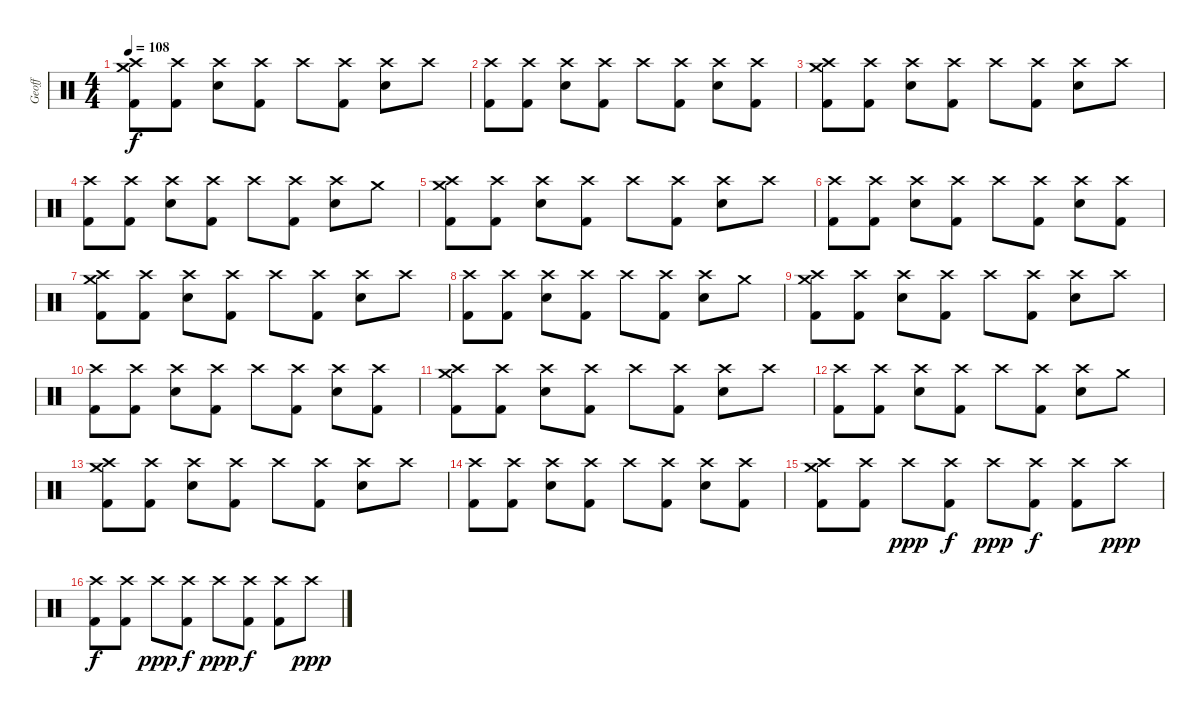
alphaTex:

\track ("Geoff" "Geoff") {instrument percussion}
\staff {score}
\articulation defaults
\ts (4 4)
\tempo 108
\clef neutral
\ks c
("Crash high (hit)" "Crash medium (hit)" "Kick (hit) 2").8{dy f} ("Crash high (hit)" "Kick (hit) 2").8 ("Crash high (hit)" "Electric Snare (hit)").8 ("Crash high (hit)" "Kick (hit) 2").8 "Crash high (hit)".8 ("Crash high (hit)" "Kick (hit) 2").8 ("Crash high (hit)" "Electric Snare (hit)").8 "Crash high (hit)".8 |
("Crash high (hit)" "Kick (hit) 2").8 ("Crash high (hit)" "Kick (hit) 2").8 ("Crash high (hit)" "Electric Snare (hit)").8 ("Crash high (hit)" "Kick (hit) 2").8 "Crash high (hit)".8 ("Crash high (hit)" "Kick (hit) 2").8 ("Crash high (hit)" "Electric Snare (hit)").8 ("Crash high (hit)" "Kick (hit) 2").8 |
("Crash high (hit)" "Crash medium (hit)" "Kick (hit) 2").8 ("Crash high (hit)" "Kick (hit) 2").8 ("Crash high (hit)" "Electric Snare (hit)").8 ("Crash high (hit)" "Kick (hit) 2").8 "Crash high (hit)".8 ("Crash high (hit)" "Kick (hit) 2").8 ("Crash high (hit)" "Electric Snare (hit)").8 "Crash high (hit)".8 |
("Crash high (hit)" "Kick (hit) 2").8 ("Crash high (hit)" "Kick (hit) 2").8 ("Crash high (hit)" "Electric Snare (hit)").8 ("Crash high (hit)" "Kick (hit) 2").8 "Crash high (hit)".8 ("Crash high (hit)" "Kick (hit) 2").8 ("Crash high (hit)" "Electric Snare (hit)").8 "Crash medium (hit)".8 |
("Crash high (hit)" "Crash medium (hit)" "Kick (hit) 2").8 ("Crash high (hit)" "Kick (hit) 2").8 ("Crash high (hit)" "Electric Snare (hit)").8 ("Crash high (hit)" "Kick (hit) 2").8 "Crash high (hit)".8 ("Crash high (hit)" "Kick (hit) 2").8 ("Crash high (hit)" "Electric Snare (hit)").8 "Crash high (hit)".8 |
("Crash high (hit)" "Kick (hit) 2").8 ("Crash high (hit)" "Kick (hit) 2").8 ("Crash high (hit)" "Electric Snare (hit)").8 ("Crash high (hit)" "Kick (hit) 2").8 "Crash high (hit)".8 ("Crash high (hit)" "Kick (hit) 2").8 ("Crash high (hit)" "Electric Snare (hit)").8 ("Crash high (hit)" "Kick (hit) 2").8 |
("Crash high (hit)" "Crash medium (hit)" "Kick (hit) 2").8 ("Crash high (hit)" "Kick (hit) 2").8 ("Crash high (hit)" "Electric Snare (hit)").8 ("Crash high (hit)" "Kick (hit) 2").8 "Crash high (hit)".8 ("Crash high (hit)" "Kick (hit) 2").8 ("Crash high (hit)" "Electric Snare (hit)").8 "Crash high (hit)".8 |
("Crash high (hit)" "Kick (hit) 2").8 ("Crash high (hit)" "Kick (hit) 2").8 ("Crash high (hit)" "Electric Snare (hit)").8 ("Crash high (hit)" "Kick (hit) 2").8 "Crash high (hit)".8 ("Crash high (hit)" "Kick (hit) 2").8 ("Crash high (hit)" "Electric Snare (hit)").8 "Crash medium (hit)".8 |
("Crash high (hit)" "Crash medium (hit)" "Kick (hit) 2").8 ("Crash high (hit)" "Kick (hit) 2").8 ("Crash high (hit)" "Electric Snare (hit)").8 ("Crash high (hit)" "Kick (hit) 2").8 "Crash high (hit)".8 ("Crash high (hit)" "Kick (hit) 2").8 ("Crash high (hit)" "Electric Snare (hit)").8 "Crash high (hit)".8 |
("Crash high (hit)" "Kick (hit) 2").8 ("Crash high (hit)" "Kick (hit) 2").8 ("Crash high (hit)" "Electric Snare (hit)").8 ("Crash high (hit)" "Kick (hit) 2").8 "Crash high (hit)".8 ("Crash high (hit)" "Kick (hit) 2").8 ("Crash high (hit)" "Electric Snare (hit)").8 ("Crash high (hit)" "Kick (hit) 2").8 |
("Crash high (hit)" "Crash medium (hit)" "Kick (hit) 2").8 ("Crash high (hit)" "Kick (hit) 2").8 ("Crash high (hit)" "Electric Snare (hit)").8 ("Crash high (hit)" "Kick (hit) 2").8 "Crash high (hit)".8 ("Crash high (hit)" "Kick (hit) 2").8 ("Crash high (hit)" "Electric Snare (hit)").8 "Crash high (hit)".8 |
("Crash high (hit)" "Kick (hit) 2").8 ("Crash high (hit)" "Kick (hit) 2").8 ("Crash high (hit)" "Electric Snare (hit)").8 ("Crash high (hit)" "Kick (hit) 2").8 "Crash high (hit)".8 ("Crash high (hit)" "Kick (hit) 2").8 ("Crash high (hit)" "Electric Snare (hit)").8 "Crash medium (hit)".8 |
("Crash high (hit)" "Crash medium (hit)" "Kick (hit) 2").8 ("Crash high (hit)" "Kick (hit) 2").8 ("Crash high (hit)" "Electric Snare (hit)").8 ("Crash high (hit)" "Kick (hit) 2").8 "Crash high (hit)".8 ("Crash high (hit)" "Kick (hit) 2").8 ("Crash high (hit)" "Electric Snare (hit)").8 "Crash high (hit)".8 |
("Crash high (hit)" "Kick (hit) 2").8 ("Crash high (hit)" "Kick (hit) 2").8 ("Crash high (hit)" "Electric Snare (hit)").8 ("Crash high (hit)" "Kick (hit) 2").8 "Crash high (hit)".8 ("Crash high (hit)" "Kick (hit) 2").8 ("Crash high (hit)" "Electric Snare (hit)").8 ("Crash high (hit)" "Kick (hit) 2").8 |
("Crash high (hit)" "Crash medium (hit)" "Kick (hit) 2").8 ("Crash high (hit)" "Kick (hit) 2").8 "Crash high (hit)".8{dy ppp} ("Crash high (hit)" "Kick (hit) 2").8{dy f} "Crash high (hit)".8{dy ppp} ("Crash high (hit)" "Kick (hit) 2").8{dy f} ("Crash high (hit)" "Kick (hit) 2").8 "Crash high (hit)".8{dy ppp} |
("Crash high (hit)" "Kick (hit) 2").8{dy f} ("Crash high (hit)" "Kick (hit) 2").8 "Crash high (hit)".8{dy ppp} ("Crash high (hit)" "Kick (hit) 2").8{dy f} "Crash high (hit)".8{dy ppp} ("Crash high (hit)" "Kick (hit) 2").8{dy f} ("Crash high (hit)" "Kick (hit) 2").8 "Crash high (hit)".8{dy ppp}
